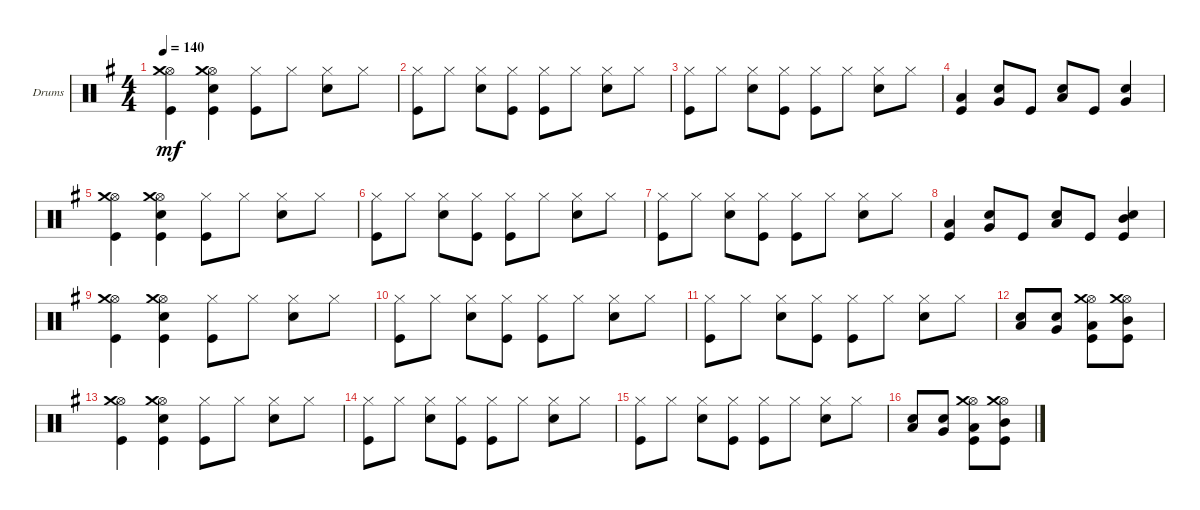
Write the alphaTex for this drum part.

\defaultSystemsLayout 4
\bracketExtendMode groupsimilarinstruments
\firstSystemTrackNameOrientation horizontal
\otherSystemsTrackNameOrientation horizontal
\track ("Drumkit" "Drums") {instrument percussion}
\staff {score}
\articulation defaults
\ts (4 4)
\tempo 140
\clef neutral
\ks g
("Hi-Hat (open)" "Crash medium (hit)" "Kick (hit)").4{dy mf} ("Kick (hit)" "Snare (hit) 2" "Hi-Hat (open)" "Crash medium (hit)").4 ("Hi-Hat (closed)" "Kick (hit)").8 "Hi-Hat (closed)".8 ("Hi-Hat (closed)" "Snare (hit) 2").8 "Hi-Hat (closed)".8 |
("Hi-Hat (closed)" "Kick (hit)").8 "Hi-Hat (closed)".8 ("Hi-Hat (closed)" "Snare (hit) 2").8 ("Hi-Hat (closed)" "Kick (hit)").8 ("Kick (hit)" "Hi-Hat (closed)").8 "Hi-Hat (closed)".8 ("Hi-Hat (closed)" "Snare (hit) 2").8 "Hi-Hat (closed)".8 |
("Kick (hit)" "Hi-Hat (closed)").8 "Hi-Hat (closed)".8 ("Hi-Hat (closed)" "Snare (hit) 2").8 ("Hi-Hat (closed)" "Kick (hit)").8 ("Hi-Hat (closed)" "Kick (hit)").8 "Hi-Hat (closed)".8 ("Hi-Hat (closed)" "Snare (hit) 2").8 "Hi-Hat (closed)".8 |
("Kick (hit)" "Low Tom (hit)").4 ("Very Low Tom (hit)" "Snare (hit) 2").8 "Kick (hit)".8 ("Low Tom (hit)" "Snare (hit) 2").8 "Kick (hit)".8 ("Snare (hit) 2" "Very Low Tom (hit)").4 |
("Hi-Hat (open)" "Crash medium (hit)" "Kick (hit)").4 ("Kick (hit)" "Snare (hit) 2" "Hi-Hat (open)" "Crash medium (hit)").4 ("Hi-Hat (closed)" "Kick (hit)").8 "Hi-Hat (closed)".8 ("Hi-Hat (closed)" "Snare (hit) 2").8 "Hi-Hat (closed)".8 |
("Hi-Hat (closed)" "Kick (hit)").8 "Hi-Hat (closed)".8 ("Hi-Hat (closed)" "Snare (hit) 2").8 ("Hi-Hat (closed)" "Kick (hit)").8 ("Kick (hit)" "Hi-Hat (closed)").8 "Hi-Hat (closed)".8 ("Hi-Hat (closed)" "Snare (hit) 2").8 "Hi-Hat (closed)".8 |
("Hi-Hat (closed)" "Kick (hit)").8 "Hi-Hat (closed)".8 ("Hi-Hat (closed)" "Snare (hit) 2").8 ("Hi-Hat (closed)" "Kick (hit)").8 ("Hi-Hat (closed)" "Kick (hit)").8 "Hi-Hat (closed)".8 ("Hi-Hat (closed)" "Snare (hit) 2").8 "Hi-Hat (closed)".8 |
("Kick (hit)" "Low Tom (hit)").4 ("Very Low Tom (hit)" "Snare (hit) 2").8 "Kick (hit)".8 ("Low Tom (hit)" "Snare (hit) 2").8 "Kick (hit)".8 ("Snare (hit) 2" "Mid Tom (hit)" "Kick (hit)").4 |
("Hi-Hat (open)" "Crash medium (hit)" "Kick (hit)").4 ("Kick (hit)" "Snare (hit) 2" "Hi-Hat (open)" "Crash medium (hit)").4 ("Hi-Hat (closed)" "Kick (hit)").8 "Hi-Hat (closed)".8 ("Hi-Hat (closed)" "Snare (hit) 2").8 "Hi-Hat (closed)".8 |
("Hi-Hat (closed)" "Kick (hit)").8 "Hi-Hat (closed)".8 ("Hi-Hat (closed)" "Snare (hit) 2").8 ("Hi-Hat (closed)" "Kick (hit)").8 ("Kick (hit)" "Hi-Hat (closed)").8 "Hi-Hat (closed)".8 ("Hi-Hat (closed)" "Snare (hit) 2").8 "Hi-Hat (closed)".8 |
("Hi-Hat (closed)" "Kick (hit)").8 "Hi-Hat (closed)".8 ("Hi-Hat (closed)" "Snare (hit) 2").8 ("Hi-Hat (closed)" "Kick (hit)").8 ("Hi-Hat (closed)" "Kick (hit)").8 "Hi-Hat (closed)".8 ("Hi-Hat (closed)" "Snare (hit) 2").8 "Hi-Hat (closed)".8 |
("Low Tom (hit)" "Snare (hit) 2").8 ("Snare (hit) 2" "Very Low Tom (hit)").8 ("Hi-Hat (open)" "Crash medium (hit)" "Kick (hit)" "Low Tom (hit)").8 ("Mid Tom (hit)" "Kick (hit)" "Hi-Hat (open)" "Crash medium (hit)").8 |
("Hi-Hat (open)" "Crash medium (hit)" "Kick (hit)").4 ("Kick (hit)" "Snare (hit) 2" "Hi-Hat (open)" "Crash medium (hit)").4 ("Hi-Hat (closed)" "Kick (hit)").8 "Hi-Hat (closed)".8 ("Hi-Hat (closed)" "Snare (hit) 2").8 "Hi-Hat (closed)".8 |
("Hi-Hat (closed)" "Kick (hit)").8 "Hi-Hat (closed)".8 ("Hi-Hat (closed)" "Snare (hit) 2").8 ("Hi-Hat (closed)" "Kick (hit)").8 ("Kick (hit)" "Hi-Hat (closed)").8 "Hi-Hat (closed)".8 ("Hi-Hat (closed)" "Snare (hit) 2").8 "Hi-Hat (closed)".8 |
("Hi-Hat (closed)" "Kick (hit)").8 "Hi-Hat (closed)".8 ("Hi-Hat (closed)" "Snare (hit) 2").8 ("Hi-Hat (closed)" "Kick (hit)").8 ("Hi-Hat (closed)" "Kick (hit)").8 "Hi-Hat (closed)".8 ("Hi-Hat (closed)" "Snare (hit) 2").8 "Hi-Hat (closed)".8 |
("Low Tom (hit)" "Snare (hit) 2").8 ("Snare (hit) 2" "Very Low Tom (hit)").8 ("Hi-Hat (open)" "Crash medium (hit)" "Kick (hit)" "Low Tom (hit)").8 ("Mid Tom (hit)" "Kick (hit)" "Hi-Hat (open)" "Crash medium (hit)").8
